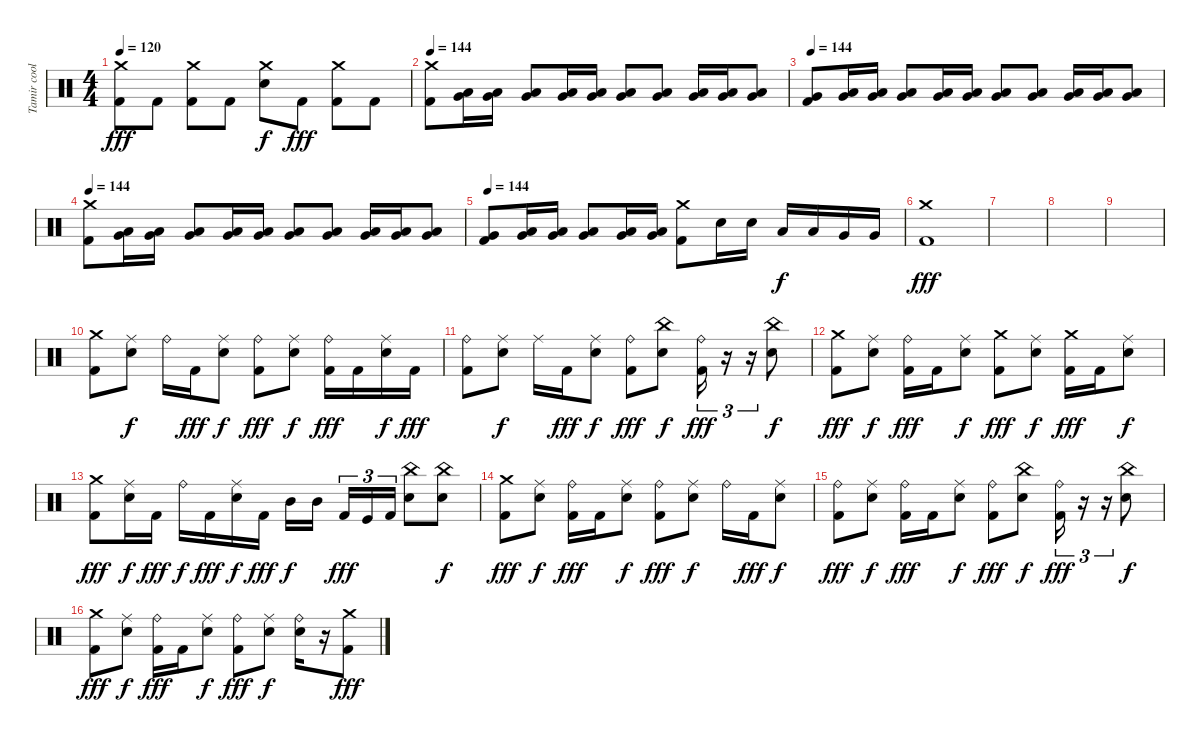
\track ("Tamir coolberg" "Tamir cool") {instrument percussion}
\staff {score}
\articulation defaults
\ts (4 4)
\tempo 120
\clef neutral
\ks c
("Crash medium (hit)" "Kick (hit) 2").8{dy fff} "Kick (hit) 2".8 ("Crash medium (hit)" "Kick (hit) 2").8 "Kick (hit) 2".8 ("Crash medium (hit)" "Electric Snare (hit)").8{dy f} "Kick (hit) 2".8{dy fff} ("Crash medium (hit)" "Kick (hit) 2").8 "Kick (hit) 2".8 |
\tempo 144
("Crash medium (hit)" "Kick (hit) 2").8 ("Very Low Tom (hit)" "Low Floor Tom (hit)").16 ("Very Low Tom (hit)" "Low Floor Tom (hit)").16 ("Very Low Tom (hit)" "Low Floor Tom (hit)").8 ("Very Low Tom (hit)" "Low Floor Tom (hit)").16 ("Very Low Tom (hit)" "Low Floor Tom (hit)").16 ("Very Low Tom (hit)" "Low Floor Tom (hit)").8 ("Very Low Tom (hit)" "Low Floor Tom (hit)").8 ("Very Low Tom (hit)" "Low Floor Tom (hit)").16 ("Very Low Tom (hit)" "Low Floor Tom (hit)").16 ("Very Low Tom (hit)" "Low Floor Tom (hit)").8 |
\tempo 144
("Very Low Tom (hit)" "Kick (hit) 2").8 ("Very Low Tom (hit)" "Low Floor Tom (hit)").16 ("Very Low Tom (hit)" "Low Floor Tom (hit)").16 ("Very Low Tom (hit)" "Low Floor Tom (hit)").8 ("Very Low Tom (hit)" "Low Floor Tom (hit)").16 ("Very Low Tom (hit)" "Low Floor Tom (hit)").16 ("Very Low Tom (hit)" "Low Floor Tom (hit)").8 ("Very Low Tom (hit)" "Low Floor Tom (hit)").8 ("Very Low Tom (hit)" "Low Floor Tom (hit)").16 ("Very Low Tom (hit)" "Low Floor Tom (hit)").16 ("Very Low Tom (hit)" "Low Floor Tom (hit)").8 |
\tempo 144
("Crash medium (hit)" "Kick (hit) 2").8 ("Very Low Tom (hit)" "Low Floor Tom (hit)").16 ("Very Low Tom (hit)" "Low Floor Tom (hit)").16 ("Very Low Tom (hit)" "Low Floor Tom (hit)").8 ("Very Low Tom (hit)" "Low Floor Tom (hit)").16 ("Very Low Tom (hit)" "Low Floor Tom (hit)").16 ("Very Low Tom (hit)" "Low Floor Tom (hit)").8 ("Very Low Tom (hit)" "Low Floor Tom (hit)").8 ("Very Low Tom (hit)" "Low Floor Tom (hit)").16 ("Very Low Tom (hit)" "Low Floor Tom (hit)").16 ("Very Low Tom (hit)" "Low Floor Tom (hit)").8 |
\tempo 144
("Very Low Tom (hit)" "Kick (hit) 2").8 ("Very Low Tom (hit)" "Low Floor Tom (hit)").16 ("Very Low Tom (hit)" "Low Floor Tom (hit)").16 ("Very Low Tom (hit)" "Low Floor Tom (hit)").8 ("Very Low Tom (hit)" "Low Floor Tom (hit)").16 ("Very Low Tom (hit)" "Low Floor Tom (hit)").16 ("Crash medium (hit)" "Kick (hit) 2").8 "Electric Snare (hit)".16 "Electric Snare (hit)".16 "Low Tom (hit)".16{dy f} "Low Tom (hit)".16 "Very Low Tom (hit)".16 "Very Low Tom (hit)".16 |
("Crash medium (hit)" "Kick (hit) 2").1{dy fff} |
|
|
|
("Crash medium (hit)" "Kick (hit) 2").8 ("Ride (middle)" "Snare (hit) 2").8{dy f} "Ride (bell)".16 "Kick (hit) 2".16{dy fff} ("Ride (middle)" "Snare (hit) 2").8{dy f} ("Ride (bell)" "Kick (hit) 2").8{dy fff} ("Ride (middle)" "Snare (hit) 2").8{dy f} ("Ride (bell)" "Kick (hit) 2").16{dy fff} "Kick (hit) 2".16 ("Ride (middle)" "Snare (hit) 2").16{dy f} "Kick (hit) 2".16{dy fff} |
("Ride (bell)" "Kick (hit) 2").8 ("Ride (middle)" "Snare (hit) 2").8{dy f} "Ride (middle)".16 "Kick (hit) 2".16{dy fff} ("Ride (middle)" "Snare (hit) 2").8{dy f} ("Ride (bell)" "Kick (hit) 2").8{dy fff} ("China (hit)" "Snare (hit) 2").8{dy f} ("Ride (bell)" "Kick (hit) 2").16{tu (3 2) dy fff} r.16{tu (3 2)} r.16{tu (3 2)} ("China (hit)" "Snare (hit) 2").8{dy f} |
("Crash medium (hit)" "Kick (hit) 2").8{dy fff} ("Ride (middle)" "Snare (hit) 2").8{dy f} ("Ride (bell)" "Kick (hit) 2").16{dy fff} "Kick (hit) 2".16 ("Ride (middle)" "Snare (hit) 2").8{dy f} ("Crash medium (hit)" "Kick (hit) 2").8{dy fff} ("Ride (middle)" "Snare (hit) 2").8{dy f} ("Crash medium (hit)" "Kick (hit) 2").16{dy fff} "Kick (hit) 2".16 ("Ride (middle)" "Snare (hit) 2").8{dy f} |
("Crash medium (hit)" "Kick (hit) 2").8{dy fff} ("Ride (middle)" "Snare (hit) 2").16{dy f} "Kick (hit) 2".16{dy fff} "Ride (bell)".16{dy f} "Kick (hit) 2".16{dy fff} ("Ride (middle)" "Snare (hit) 2").16{dy f} "Kick (hit) 2".16{dy fff} "Mid Tom (hit)".16{dy f} "Mid Tom (hit)".16 "Kick (hit) 2".16{tu (3 2) dy fff} "Kick (hit)".16{tu (3 2)} "Kick (hit) 2".16{tu (3 2)} ("China (hit)" "Electric Snare (hit)").8 ("China (hit)" "Electric Snare (hit)").8{dy f} |
("Crash medium (hit)" "Kick (hit) 2").8{dy fff} ("Ride (middle)" "Snare (hit) 2").8{dy f} ("Ride (bell)" "Kick (hit) 2").16{dy fff} "Kick (hit) 2".16 ("Ride (middle)" "Snare (hit) 2").8{dy f} ("Ride (bell)" "Kick (hit) 2").8{dy fff} ("Ride (middle)" "Snare (hit) 2").8{dy f} "Ride (bell)".16 "Kick (hit) 2".16{dy fff} ("Ride (middle)" "Snare (hit) 2").8{dy f} |
("Ride (bell)" "Kick (hit) 2").8{dy fff} ("Ride (middle)" "Snare (hit) 2").8{dy f} ("Ride (bell)" "Kick (hit) 2").16{dy fff} "Kick (hit) 2".16 ("Ride (middle)" "Snare (hit) 2").8{dy f} ("Ride (bell)" "Kick (hit) 2").8{dy fff} ("China (hit)" "Snare (hit) 2").8{dy f} ("Ride (bell)" "Kick (hit) 2").16{tu (3 2) dy fff} r.16{tu (3 2)} r.16{tu (3 2)} ("China (hit)" "Snare (hit) 2").8{dy f} |
("Crash medium (hit)" "Kick (hit) 2").8{dy fff} ("Ride (middle)" "Snare (hit) 2").8{dy f} ("Ride (bell)" "Kick (hit) 2").16{dy fff} "Kick (hit) 2".16 ("Ride (middle)" "Snare (hit) 2").8{dy f} ("Ride (bell)" "Kick (hit) 2").8{dy fff} ("Ride (middle)" "Snare (hit) 2").8{dy f} ("Ride (bell)" "Snare (hit) 2").16 r.16 ("Crash medium (hit)" "Kick (hit) 2").8{dy fff}
